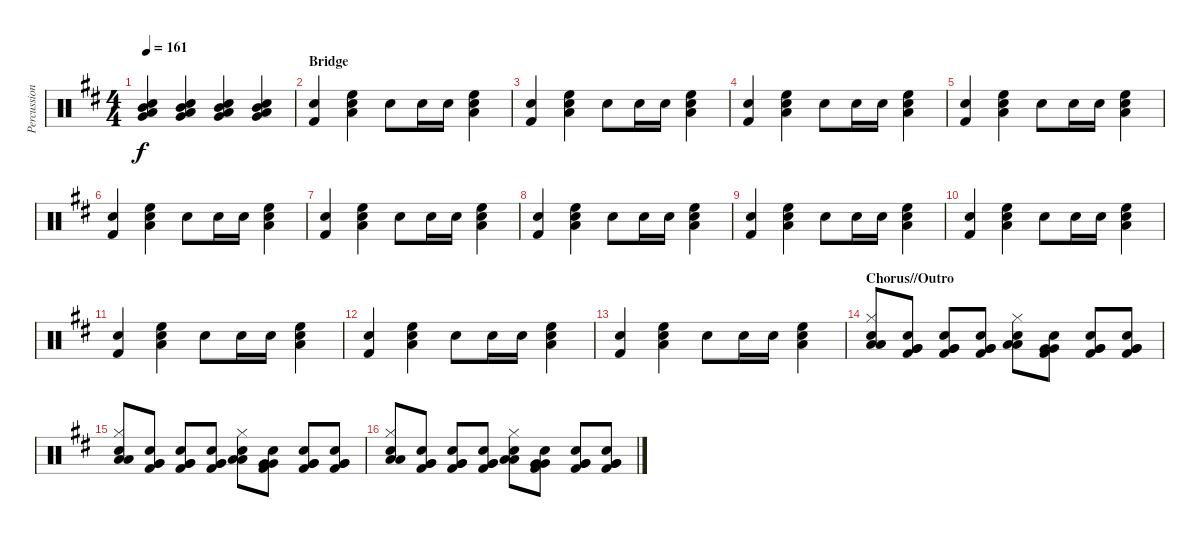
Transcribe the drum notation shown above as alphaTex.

\track ("Percussion" "Percussion") {instrument percussion}
\staff {score}
\articulation defaults
\ts (4 4)
\tempo 161
\clef neutral
\ks d
("Low Tom (hit)" "Mid Tom (hit)" "Electric Snare (hit)" "Very Low Tom (hit)").4{dy f} ("Low Tom (hit)" "Mid Tom (hit)" "Electric Snare (hit)" "Very Low Tom (hit)").4 ("Low Tom (hit)" "Mid Tom (hit)" "Electric Snare (hit)" "Very Low Tom (hit)").4 ("Low Tom (hit)" "Mid Tom (hit)" "Electric Snare (hit)" "Very Low Tom (hit)").4 |
\section ("" "Bridge")
("Kick (hit) 2" "Electric Snare (hit)").4 ("Low Tom (hit)" "High Floor Tom (hit)" "Electric Snare (hit)").4 "Electric Snare (hit)".8 "Electric Snare (hit)".16 "Electric Snare (hit)".16 ("Low Tom (hit)" "High Floor Tom (hit)" "Electric Snare (hit)").4 |
("Kick (hit) 2" "Electric Snare (hit)").4 ("Low Tom (hit)" "High Floor Tom (hit)" "Electric Snare (hit)").4 "Electric Snare (hit)".8 "Electric Snare (hit)".16 "Electric Snare (hit)".16 ("Low Tom (hit)" "High Floor Tom (hit)" "Electric Snare (hit)").4 |
("Kick (hit) 2" "Electric Snare (hit)").4 ("Low Tom (hit)" "High Floor Tom (hit)" "Electric Snare (hit)").4 "Electric Snare (hit)".8 "Electric Snare (hit)".16 "Electric Snare (hit)".16 ("Low Tom (hit)" "High Floor Tom (hit)" "Electric Snare (hit)").4 |
("Kick (hit) 2" "Electric Snare (hit)").4 ("Low Tom (hit)" "High Floor Tom (hit)" "Electric Snare (hit)").4 "Electric Snare (hit)".8 "Electric Snare (hit)".16 "Electric Snare (hit)".16 ("Low Tom (hit)" "High Floor Tom (hit)" "Electric Snare (hit)").4 |
("Kick (hit) 2" "Electric Snare (hit)").4 ("Low Tom (hit)" "High Floor Tom (hit)" "Electric Snare (hit)").4 "Electric Snare (hit)".8 "Electric Snare (hit)".16 "Electric Snare (hit)".16 ("Low Tom (hit)" "High Floor Tom (hit)" "Electric Snare (hit)").4 |
("Kick (hit) 2" "Electric Snare (hit)").4 ("Low Tom (hit)" "High Floor Tom (hit)" "Electric Snare (hit)").4 "Electric Snare (hit)".8 "Electric Snare (hit)".16 "Electric Snare (hit)".16 ("Low Tom (hit)" "High Floor Tom (hit)" "Electric Snare (hit)").4 |
("Kick (hit) 2" "Electric Snare (hit)").4 ("Low Tom (hit)" "High Floor Tom (hit)" "Electric Snare (hit)").4 "Electric Snare (hit)".8 "Electric Snare (hit)".16 "Electric Snare (hit)".16 ("Low Tom (hit)" "High Floor Tom (hit)" "Electric Snare (hit)").4 |
("Kick (hit) 2" "Electric Snare (hit)").4 ("Low Tom (hit)" "High Floor Tom (hit)" "Electric Snare (hit)").4 "Electric Snare (hit)".8 "Electric Snare (hit)".16 "Electric Snare (hit)".16 ("Low Tom (hit)" "High Floor Tom (hit)" "Electric Snare (hit)").4 |
("Kick (hit) 2" "Electric Snare (hit)").4 ("Low Tom (hit)" "High Floor Tom (hit)" "Electric Snare (hit)").4 "Electric Snare (hit)".8 "Electric Snare (hit)".16 "Electric Snare (hit)".16 ("Low Tom (hit)" "High Floor Tom (hit)" "Electric Snare (hit)").4 |
("Kick (hit) 2" "Electric Snare (hit)").4 ("Low Tom (hit)" "High Floor Tom (hit)" "Electric Snare (hit)").4 "Electric Snare (hit)".8 "Electric Snare (hit)".16 "Electric Snare (hit)".16 ("Low Tom (hit)" "High Floor Tom (hit)" "Electric Snare (hit)").4 |
("Kick (hit) 2" "Electric Snare (hit)").4 ("Low Tom (hit)" "High Floor Tom (hit)" "Electric Snare (hit)").4 "Electric Snare (hit)".8 "Electric Snare (hit)".16 "Electric Snare (hit)".16 ("Low Tom (hit)" "High Floor Tom (hit)" "Electric Snare (hit)").4 |
("Kick (hit) 2" "Electric Snare (hit)").4 ("Low Tom (hit)" "High Floor Tom (hit)" "Electric Snare (hit)").4 "Electric Snare (hit)".8 "Electric Snare (hit)".16 "Electric Snare (hit)".16 ("Low Tom (hit)" "High Floor Tom (hit)" "Electric Snare (hit)").4 |
\section ("" "Chorus//Outro")
("Hi-Hat (closed)" "Low Floor Tom (hit)" "Low Floor Tom (hit)" "Electric Snare (hit)").8 ("Snare (hit) 2" "Kick (hit) 2" "Very Low Tom (hit)" "Very Low Tom (hit)").8 ("Snare (hit) 2" "Kick (hit) 2" "Very Low Tom (hit)" "Very Low Tom (hit)").8 ("Snare (hit) 2" "Kick (hit) 2" "Very Low Tom (hit)" "Very Low Tom (hit)").8 ("Hi-Hat (closed)" "Low Tom (hit)" "Low Tom (hit)" "Electric Snare (hit)").8 ("Snare (hit) 2" "Kick (hit) 2" "Very Low Tom (hit)" "Very Low Tom (hit)").8 ("Snare (hit) 2" "Kick (hit) 2" "Very Low Tom (hit)" "Very Low Tom (hit)").8 ("Snare (hit) 2" "Kick (hit) 2" "Very Low Tom (hit)" "Very Low Tom (hit)").8 |
("Hi-Hat (closed)" "Low Floor Tom (hit)" "Low Floor Tom (hit)" "Electric Snare (hit)").8 ("Snare (hit) 2" "Kick (hit) 2" "Very Low Tom (hit)" "Very Low Tom (hit)").8 ("Snare (hit) 2" "Kick (hit) 2" "Very Low Tom (hit)" "Very Low Tom (hit)").8 ("Snare (hit) 2" "Kick (hit) 2" "Very Low Tom (hit)" "Very Low Tom (hit)").8 ("Hi-Hat (closed)" "Low Tom (hit)" "Low Tom (hit)" "Electric Snare (hit)").8 ("Snare (hit) 2" "Kick (hit) 2" "Very Low Tom (hit)" "Very Low Tom (hit)").8 ("Snare (hit) 2" "Kick (hit) 2" "Very Low Tom (hit)" "Very Low Tom (hit)").8 ("Snare (hit) 2" "Kick (hit) 2" "Very Low Tom (hit)" "Very Low Tom (hit)").8 |
("Hi-Hat (closed)" "Low Floor Tom (hit)" "Low Floor Tom (hit)" "Electric Snare (hit)").8 ("Snare (hit) 2" "Kick (hit) 2" "Very Low Tom (hit)" "Very Low Tom (hit)").8 ("Snare (hit) 2" "Kick (hit) 2" "Very Low Tom (hit)" "Very Low Tom (hit)").8 ("Snare (hit) 2" "Kick (hit) 2" "Very Low Tom (hit)" "Very Low Tom (hit)").8 ("Hi-Hat (closed)" "Low Tom (hit)" "Low Tom (hit)" "Electric Snare (hit)").8 ("Snare (hit) 2" "Kick (hit) 2" "Very Low Tom (hit)" "Very Low Tom (hit)").8 ("Snare (hit) 2" "Kick (hit) 2" "Very Low Tom (hit)" "Very Low Tom (hit)").8 ("Snare (hit) 2" "Kick (hit) 2" "Very Low Tom (hit)" "Very Low Tom (hit)").8
